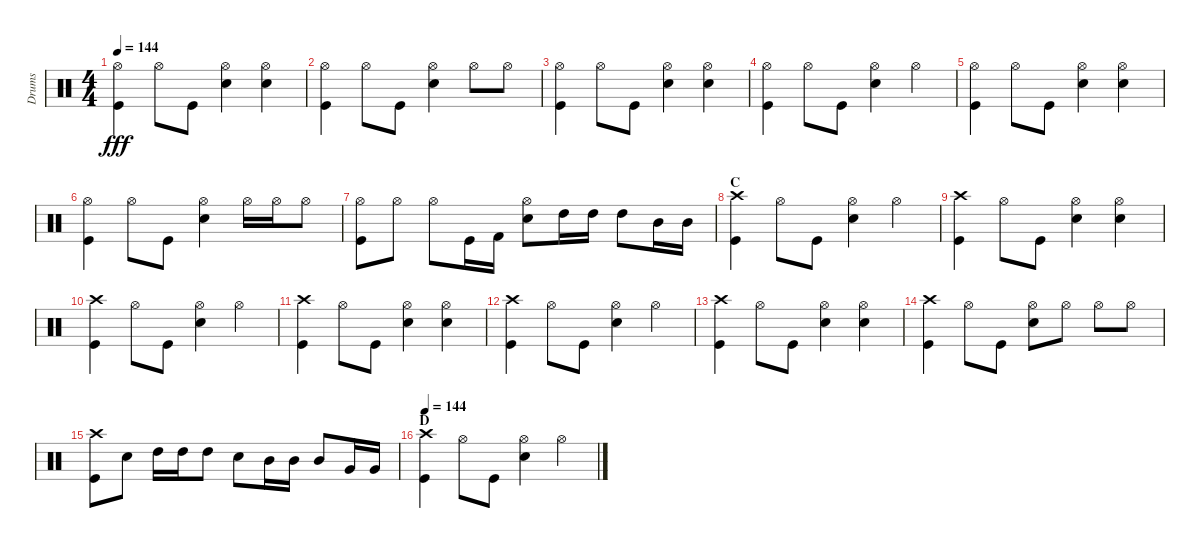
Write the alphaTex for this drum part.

\track ("Drums" "Drums") {instrument percussion}
\staff {score}
\articulation defaults
\ts (4 4)
\tempo 144
\clef neutral
\ks c
("Hi-Hat (open)" "Kick (hit)").4{dy fff} "Hi-Hat (open)".8 "Kick (hit)".8 ("Hi-Hat (open)" "Snare (hit) 2").4 ("Hi-Hat (open)" "Snare (hit) 2").4 |
("Hi-Hat (open)" "Kick (hit)").4 "Hi-Hat (open)".8 "Kick (hit)".8 ("Hi-Hat (open)" "Snare (hit) 2").4 "Hi-Hat (open)".8 "Hi-Hat (open)".8 |
("Hi-Hat (open)" "Kick (hit)").4 "Hi-Hat (open)".8 "Kick (hit)".8 ("Hi-Hat (open)" "Snare (hit) 2").4 ("Hi-Hat (open)" "Snare (hit) 2").4 |
("Hi-Hat (open)" "Kick (hit)").4 "Hi-Hat (open)".8 "Kick (hit)".8 ("Hi-Hat (open)" "Snare (hit) 2").4 "Hi-Hat (open)".4 |
("Hi-Hat (open)" "Kick (hit)").4 "Hi-Hat (open)".8 "Kick (hit)".8 ("Hi-Hat (open)" "Snare (hit) 2").4 ("Hi-Hat (open)" "Snare (hit) 2").4 |
("Hi-Hat (open)" "Kick (hit)").4 "Hi-Hat (open)".8 "Kick (hit)".8 ("Hi-Hat (open)" "Snare (hit) 2").4 "Hi-Hat (open)".16 "Hi-Hat (open)".16 "Hi-Hat (open)".8 |
("Hi-Hat (open)" "Kick (hit)").8 "Hi-Hat (open)".8 "Hi-Hat (open)".8 "Kick (hit)".16 "Kick (hit) 2".16 ("Hi-Hat (open)" "Snare (hit) 2").8 "High Tom (hit)".16 "High Tom (hit)".16 "High Tom (hit)".8 "Mid Tom (hit)".16 "Mid Tom (hit)".16 |
\section ("" "C")
("Crash high (hit)" "Kick (hit)").4 "Hi-Hat (open)".8 "Kick (hit)".8 ("Hi-Hat (open)" "Snare (hit) 2").4 "Hi-Hat (open)".4 |
("Crash high (hit)" "Kick (hit)").4 "Hi-Hat (open)".8 "Kick (hit)".8 ("Hi-Hat (open)" "Snare (hit) 2").4 ("Hi-Hat (open)" "Snare (hit) 2").4 |
("Crash high (hit)" "Kick (hit)").4 "Hi-Hat (open)".8 "Kick (hit)".8 ("Hi-Hat (open)" "Snare (hit) 2").4 "Hi-Hat (open)".4 |
("Crash high (hit)" "Kick (hit)").4 "Hi-Hat (open)".8 "Kick (hit)".8 ("Hi-Hat (open)" "Snare (hit) 2").4 ("Hi-Hat (open)" "Snare (hit) 2").4 |
("Crash high (hit)" "Kick (hit)").4 "Hi-Hat (open)".8 "Kick (hit)".8 ("Hi-Hat (open)" "Snare (hit) 2").4 "Hi-Hat (open)".4 |
("Crash high (hit)" "Kick (hit)").4 "Hi-Hat (open)".8 "Kick (hit)".8 ("Hi-Hat (open)" "Snare (hit) 2").4 ("Hi-Hat (open)" "Snare (hit) 2").4 |
("Crash high (hit)" "Kick (hit)").4 "Hi-Hat (open)".8 "Kick (hit)".8 ("Hi-Hat (open)" "Snare (hit) 2").8 "Hi-Hat (open)".8 "Hi-Hat (open)".8 "Hi-Hat (open)".8 |
("Crash high (hit)" "Kick (hit)").8 "Snare (hit) 2".8 "High Tom (hit)".16 "High Tom (hit)".16 "High Tom (hit)".8 "Snare (hit) 2".8 "Mid Tom (hit)".16 "Mid Tom (hit)".16 "Mid Tom (hit)".8 "Very Low Tom (hit)".16 "Very Low Tom (hit)".16 |
\section ("" "D")
\tempo 144
("Crash high (hit)" "Kick (hit)").4 "Hi-Hat (open)".8 "Kick (hit)".8 ("Hi-Hat (open)" "Snare (hit) 2").4 "Hi-Hat (open)".4
